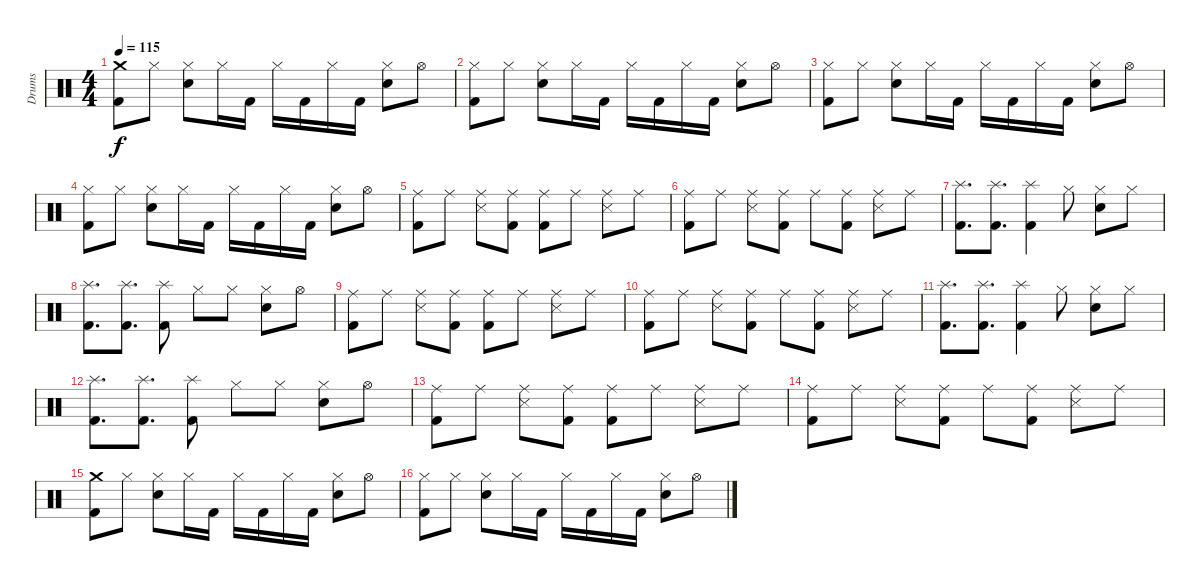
\track ("Drums" "Drums") {instrument percussion}
\staff {score}
\articulation defaults
\ts (4 4)
\tempo 115
\clef neutral
\ks c
("Crash medium (hit)" "Kick (hit) 2").8{dy f} "Hi-Hat (closed)".8 ("Hi-Hat (closed)" "Snare (hit) 2").8 "Hi-Hat (closed)".16 "Kick (hit) 2".16 "Hi-Hat (closed)".16 "Kick (hit) 2".16 "Hi-Hat (closed)".16 "Kick (hit) 2".16 ("Hi-Hat (closed)" "Snare (hit) 2").8 "Hi-Hat (open)".8 |
("Hi-Hat (closed)" "Kick (hit) 2").8 "Hi-Hat (closed)".8 ("Hi-Hat (closed)" "Snare (hit) 2").8 "Hi-Hat (closed)".16 "Kick (hit) 2".16 "Hi-Hat (closed)".16 "Kick (hit) 2".16 "Hi-Hat (closed)".16 "Kick (hit) 2".16 ("Hi-Hat (closed)" "Snare (hit) 2").8 "Hi-Hat (open)".8 |
("Hi-Hat (closed)" "Kick (hit) 2").8 "Hi-Hat (closed)".8 ("Hi-Hat (closed)" "Snare (hit) 2").8 "Hi-Hat (closed)".16 "Kick (hit) 2".16 "Hi-Hat (closed)".16 "Kick (hit) 2".16 "Hi-Hat (closed)".16 "Kick (hit) 2".16 ("Hi-Hat (closed)" "Snare (hit) 2").8 "Hi-Hat (open)".8 |
("Hi-Hat (closed)" "Kick (hit) 2").8 "Hi-Hat (closed)".8 ("Hi-Hat (closed)" "Snare (hit) 2").8 "Hi-Hat (closed)".16 "Kick (hit) 2".16 "Hi-Hat (closed)".16 "Kick (hit) 2".16 "Hi-Hat (closed)".16 "Kick (hit) 2".16 ("Hi-Hat (closed)" "Snare (hit) 2").8 "Hi-Hat (open)".8 |
("Ride (middle)" "Kick (hit) 2").8 "Ride (middle)".8 ("Ride (middle)" "Snare (side stick) 3").8 ("Ride (middle)" "Kick (hit) 2").8 ("Ride (middle)" "Kick (hit) 2").8 "Ride (middle)".8 ("Ride (middle)" "Snare (side stick) 3").8 "Ride (middle)".8 |
("Ride (middle)" "Kick (hit) 2").8 "Ride (middle)".8 ("Ride (middle)" "Snare (side stick) 3").8 ("Ride (middle)" "Kick (hit) 2").8 "Ride (middle)".8 ("Ride (middle)" "Kick (hit) 2").8 ("Ride (middle)" "Snare (side stick) 3").8 "Ride (middle)".8 |
("Splash (hit)" "Kick (hit) 2").8{d} ("Splash (hit)" "Kick (hit) 2").8{d} ("Splash (hit)" "Kick (hit) 2").4 "Hi-Hat (closed)".8 ("Hi-Hat (closed)" "Snare (hit) 2").8 "Hi-Hat (closed)".8 |
("Splash (hit)" "Kick (hit) 2").8{d} ("Splash (hit)" "Kick (hit) 2").8{d} ("Splash (hit)" "Kick (hit) 2").8 "Hi-Hat (closed)".8 "Hi-Hat (closed)".8 ("Hi-Hat (closed)" "Snare (hit) 2").8 "Hi-Hat (open)".8 |
("Ride (middle)" "Kick (hit) 2").8 "Ride (middle)".8 ("Ride (middle)" "Snare (side stick) 3").8 ("Ride (middle)" "Kick (hit) 2").8 ("Ride (middle)" "Kick (hit) 2").8 "Ride (middle)".8 ("Ride (middle)" "Snare (side stick) 3").8 "Ride (middle)".8 |
("Ride (middle)" "Kick (hit) 2").8 "Ride (middle)".8 ("Ride (middle)" "Snare (side stick) 3").8 ("Ride (middle)" "Kick (hit) 2").8 "Ride (middle)".8 ("Ride (middle)" "Kick (hit) 2").8 ("Ride (middle)" "Snare (side stick) 3").8 "Ride (middle)".8 |
("Splash (hit)" "Kick (hit) 2").8{d} ("Splash (hit)" "Kick (hit) 2").8{d} ("Splash (hit)" "Kick (hit) 2").4 "Hi-Hat (closed)".8 ("Hi-Hat (closed)" "Snare (hit) 2").8 "Hi-Hat (closed)".8 |
("Splash (hit)" "Kick (hit) 2").8{d} ("Splash (hit)" "Kick (hit) 2").8{d} ("Splash (hit)" "Kick (hit) 2").8 "Hi-Hat (closed)".8 "Hi-Hat (closed)".8 ("Hi-Hat (closed)" "Snare (hit) 2").8 "Hi-Hat (open)".8 |
("Ride (middle)" "Kick (hit) 2").8 "Ride (middle)".8 ("Ride (middle)" "Snare (side stick) 3").8 ("Ride (middle)" "Kick (hit) 2").8 ("Ride (middle)" "Kick (hit) 2").8 "Ride (middle)".8 ("Ride (middle)" "Snare (side stick) 3").8 "Ride (middle)".8 |
("Ride (middle)" "Kick (hit) 2").8 "Ride (middle)".8 ("Ride (middle)" "Snare (side stick) 3").8 ("Ride (middle)" "Kick (hit) 2").8 "Ride (middle)".8 ("Ride (middle)" "Kick (hit) 2").8 ("Ride (middle)" "Snare (side stick) 3").8 "Ride (middle)".8 |
("Crash medium (hit)" "Kick (hit) 2").8 "Hi-Hat (closed)".8 ("Hi-Hat (closed)" "Snare (hit) 2").8 "Hi-Hat (closed)".16 "Kick (hit) 2".16 "Hi-Hat (closed)".16 "Kick (hit) 2".16 "Hi-Hat (closed)".16 "Kick (hit) 2".16 ("Hi-Hat (closed)" "Snare (hit) 2").8 "Hi-Hat (open)".8 |
("Hi-Hat (closed)" "Kick (hit) 2").8 "Hi-Hat (closed)".8 ("Hi-Hat (closed)" "Snare (hit) 2").8 "Hi-Hat (closed)".16 "Kick (hit) 2".16 "Hi-Hat (closed)".16 "Kick (hit) 2".16 "Hi-Hat (closed)".16 "Kick (hit) 2".16 ("Hi-Hat (closed)" "Snare (hit) 2").8 "Hi-Hat (open)".8
